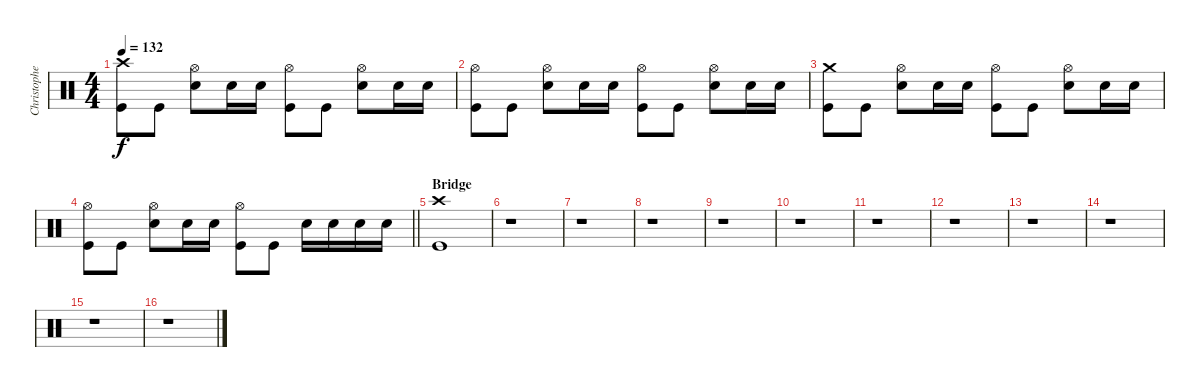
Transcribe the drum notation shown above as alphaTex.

\track ("Christopher - Drums" "Christophe") {instrument percussion}
\staff {score}
\articulation defaults
\ts (4 4)
\tempo 132
\clef neutral
\ks c
("Crash high (hit)" "Kick (hit)").8{dy f} "Kick (hit)".8 ("Hi-Hat (open)" "Snare (hit) 2").8 "Snare (hit) 2".16 "Snare (hit) 2".16 ("Hi-Hat (open)" "Kick (hit)").8 "Kick (hit)".8 ("Hi-Hat (open)" "Snare (hit) 2").8 "Snare (hit) 2".16 "Snare (hit) 2".16 |
("Hi-Hat (open)" "Kick (hit)").8 "Kick (hit)".8 ("Hi-Hat (open)" "Snare (hit) 2").8 "Snare (hit) 2".16 "Snare (hit) 2".16 ("Hi-Hat (open)" "Kick (hit)").8 "Kick (hit)".8 ("Hi-Hat (open)" "Snare (hit) 2").8 "Snare (hit) 2".16 "Snare (hit) 2".16 |
("Crash medium (hit)" "Kick (hit)").8 "Kick (hit)".8 ("Hi-Hat (open)" "Snare (hit) 2").8 "Snare (hit) 2".16 "Snare (hit) 2".16 ("Hi-Hat (open)" "Kick (hit)").8 "Kick (hit)".8 ("Hi-Hat (open)" "Snare (hit) 2").8 "Snare (hit) 2".16 "Snare (hit) 2".16 |
\barLineRight lightlight
("Hi-Hat (open)" "Kick (hit)").8 "Kick (hit)".8 ("Hi-Hat (open)" "Snare (hit) 2").8 "Snare (hit) 2".16 "Snare (hit) 2".16 ("Hi-Hat (open)" "Kick (hit)").8 "Kick (hit)".8 "Snare (hit) 2".16 "Snare (hit) 2".16 "Snare (hit) 2".16 "Snare (hit) 2".16 |
\section ("" "Bridge")
("Crash high (hit)" "Kick (hit)").1 |
r.1 |
r.1 |
r.1 |
r.1 |
r.1 |
r.1 |
r.1 |
r.1 |
r.1 |
r.1 |
r.1
